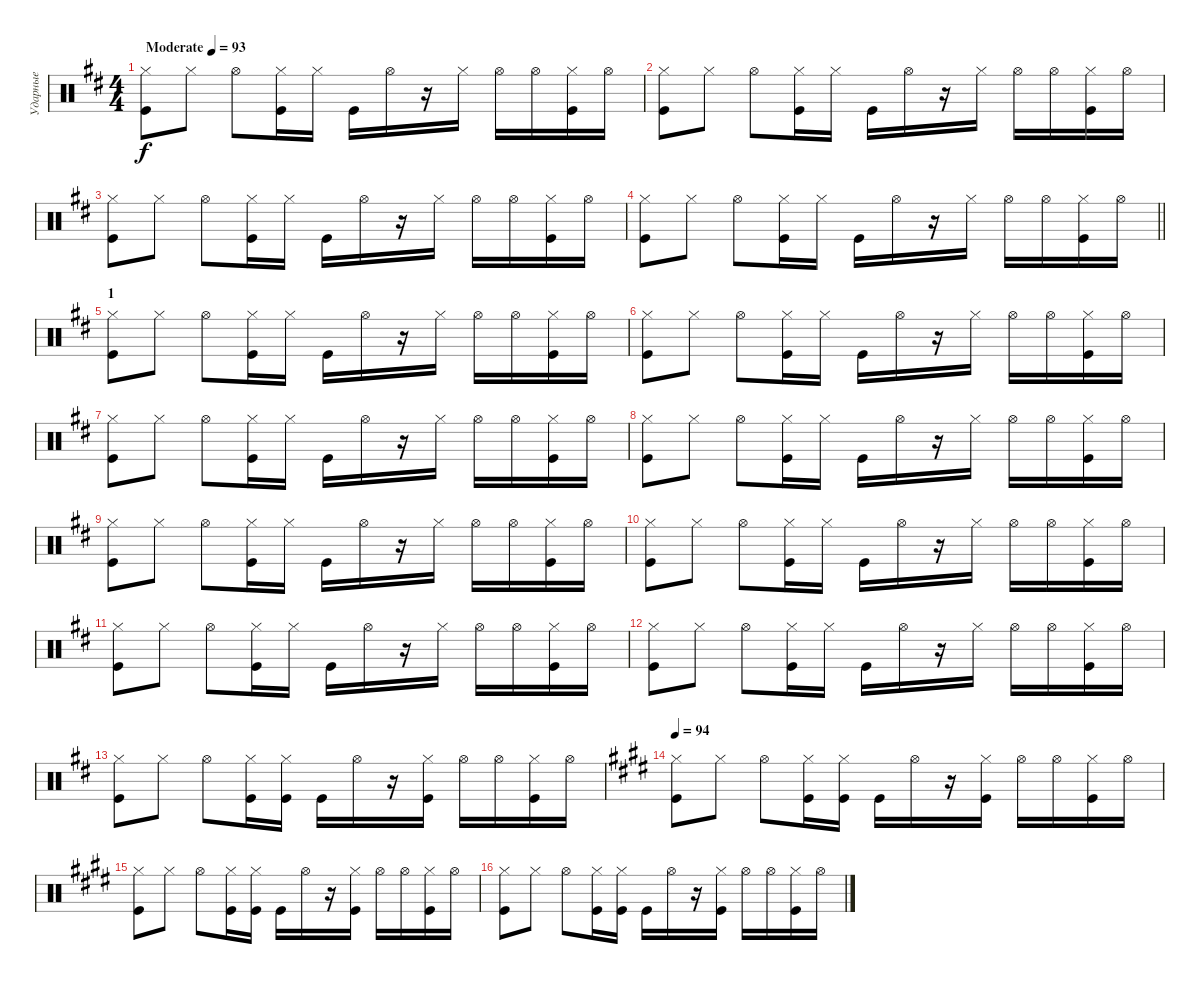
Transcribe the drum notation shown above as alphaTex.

\track ("Ударные" "Ударные") {instrument percussion}
\staff {score}
\articulation defaults
\ts (4 4)
\tempo (93 "Moderate")
\clef neutral
\ks bminor
("Hi-Hat (closed)" "Kick (hit)").8{dy f volume 12} "Hi-Hat (closed)".8 "Hi-Hat (open)".8 ("Hi-Hat (closed)" "Kick (hit)").16 "Hi-Hat (closed)".16 "Kick (hit)".16 "Hi-Hat (open)".16 r.16 "Hi-Hat (closed)".16 "Hi-Hat (open)".16 "Hi-Hat (open)".16 ("Hi-Hat (closed)" "Kick (hit)").16 "Hi-Hat (open)".16 |
("Hi-Hat (closed)" "Kick (hit)").8 "Hi-Hat (closed)".8 "Hi-Hat (open)".8 ("Hi-Hat (closed)" "Kick (hit)").16 "Hi-Hat (closed)".16 "Kick (hit)".16 "Hi-Hat (open)".16 r.16 "Hi-Hat (closed)".16 "Hi-Hat (open)".16 "Hi-Hat (open)".16 ("Hi-Hat (closed)" "Kick (hit)").16 "Hi-Hat (open)".16 |
("Hi-Hat (closed)" "Kick (hit)").8 "Hi-Hat (closed)".8 "Hi-Hat (open)".8 ("Hi-Hat (closed)" "Kick (hit)").16 "Hi-Hat (closed)".16 "Kick (hit)".16 "Hi-Hat (open)".16 r.16 "Hi-Hat (closed)".16 "Hi-Hat (open)".16 "Hi-Hat (open)".16 ("Hi-Hat (closed)" "Kick (hit)").16 "Hi-Hat (open)".16 |
\barLineRight lightlight
("Hi-Hat (closed)" "Kick (hit)").8 "Hi-Hat (closed)".8 "Hi-Hat (open)".8 ("Hi-Hat (closed)" "Kick (hit)").16 "Hi-Hat (closed)".16 "Kick (hit)".16 "Hi-Hat (open)".16 r.16 "Hi-Hat (closed)".16 "Hi-Hat (open)".16 "Hi-Hat (open)".16 ("Hi-Hat (closed)" "Kick (hit)").16 "Hi-Hat (open)".16 |
\section ("" "1")
("Hi-Hat (closed)" "Kick (hit)").8 "Hi-Hat (closed)".8 "Hi-Hat (open)".8 ("Hi-Hat (closed)" "Kick (hit)").16 "Hi-Hat (closed)".16 "Kick (hit)".16 "Hi-Hat (open)".16 r.16 "Hi-Hat (closed)".16 "Hi-Hat (open)".16 "Hi-Hat (open)".16 ("Hi-Hat (closed)" "Kick (hit)").16 "Hi-Hat (open)".16 |
("Hi-Hat (closed)" "Kick (hit)").8 "Hi-Hat (closed)".8 "Hi-Hat (open)".8 ("Hi-Hat (closed)" "Kick (hit)").16 "Hi-Hat (closed)".16 "Kick (hit)".16 "Hi-Hat (open)".16 r.16 "Hi-Hat (closed)".16 "Hi-Hat (open)".16 "Hi-Hat (open)".16 ("Hi-Hat (closed)" "Kick (hit)").16 "Hi-Hat (open)".16 |
("Hi-Hat (closed)" "Kick (hit)").8 "Hi-Hat (closed)".8 "Hi-Hat (open)".8 ("Hi-Hat (closed)" "Kick (hit)").16 "Hi-Hat (closed)".16 "Kick (hit)".16 "Hi-Hat (open)".16 r.16 "Hi-Hat (closed)".16 "Hi-Hat (open)".16 "Hi-Hat (open)".16 ("Hi-Hat (closed)" "Kick (hit)").16 "Hi-Hat (open)".16 |
("Hi-Hat (closed)" "Kick (hit)").8 "Hi-Hat (closed)".8 "Hi-Hat (open)".8 ("Hi-Hat (closed)" "Kick (hit)").16 "Hi-Hat (closed)".16 "Kick (hit)".16 "Hi-Hat (open)".16 r.16 "Hi-Hat (closed)".16 "Hi-Hat (open)".16 "Hi-Hat (open)".16 ("Hi-Hat (closed)" "Kick (hit)").16 "Hi-Hat (open)".16 |
("Hi-Hat (closed)" "Kick (hit)").8 "Hi-Hat (closed)".8 "Hi-Hat (open)".8 ("Hi-Hat (closed)" "Kick (hit)").16 "Hi-Hat (closed)".16 "Kick (hit)".16 "Hi-Hat (open)".16 r.16 "Hi-Hat (closed)".16 "Hi-Hat (open)".16 "Hi-Hat (open)".16 ("Hi-Hat (closed)" "Kick (hit)").16 "Hi-Hat (open)".16 |
("Hi-Hat (closed)" "Kick (hit)").8 "Hi-Hat (closed)".8 "Hi-Hat (open)".8 ("Hi-Hat (closed)" "Kick (hit)").16 "Hi-Hat (closed)".16 "Kick (hit)".16 "Hi-Hat (open)".16 r.16 "Hi-Hat (closed)".16 "Hi-Hat (open)".16 "Hi-Hat (open)".16 ("Hi-Hat (closed)" "Kick (hit)").16 "Hi-Hat (open)".16 |
("Hi-Hat (closed)" "Kick (hit)").8 "Hi-Hat (closed)".8 "Hi-Hat (open)".8 ("Hi-Hat (closed)" "Kick (hit)").16 "Hi-Hat (closed)".16 "Kick (hit)".16 "Hi-Hat (open)".16 r.16 "Hi-Hat (closed)".16 "Hi-Hat (open)".16 "Hi-Hat (open)".16 ("Hi-Hat (closed)" "Kick (hit)").16 "Hi-Hat (open)".16 |
("Hi-Hat (closed)" "Kick (hit)").8 "Hi-Hat (closed)".8 "Hi-Hat (open)".8 ("Hi-Hat (closed)" "Kick (hit)").16 "Hi-Hat (closed)".16 "Kick (hit)".16 "Hi-Hat (open)".16 r.16 "Hi-Hat (closed)".16 "Hi-Hat (open)".16 "Hi-Hat (open)".16 ("Hi-Hat (closed)" "Kick (hit)").16 "Hi-Hat (open)".16 |
("Hi-Hat (closed)" "Kick (hit)").8 "Hi-Hat (closed)".8 "Hi-Hat (open)".8 ("Hi-Hat (closed)" "Kick (hit)").16 ("Hi-Hat (closed)" "Kick (hit)").16 "Kick (hit)".16 "Hi-Hat (open)".16 r.16 ("Hi-Hat (closed)" "Kick (hit)").16 "Hi-Hat (open)".16 "Hi-Hat (open)".16 ("Hi-Hat (closed)" "Kick (hit)").16 "Hi-Hat (open)".16 |
\tempo 94
\ks c#minor
("Hi-Hat (closed)" "Kick (hit)").8 "Hi-Hat (closed)".8 "Hi-Hat (open)".8 ("Hi-Hat (closed)" "Kick (hit)").16 ("Hi-Hat (closed)" "Kick (hit)").16 "Kick (hit)".16 "Hi-Hat (open)".16 r.16 ("Hi-Hat (closed)" "Kick (hit)").16 "Hi-Hat (open)".16 "Hi-Hat (open)".16 ("Hi-Hat (closed)" "Kick (hit)").16 "Hi-Hat (open)".16 |
("Hi-Hat (closed)" "Kick (hit)").8 "Hi-Hat (closed)".8 "Hi-Hat (open)".8 ("Hi-Hat (closed)" "Kick (hit)").16 ("Hi-Hat (closed)" "Kick (hit)").16 "Kick (hit)".16 "Hi-Hat (open)".16 r.16 ("Hi-Hat (closed)" "Kick (hit)").16 "Hi-Hat (open)".16 "Hi-Hat (open)".16 ("Hi-Hat (closed)" "Kick (hit)").16 "Hi-Hat (open)".16 |
("Hi-Hat (closed)" "Kick (hit)").8 "Hi-Hat (closed)".8 "Hi-Hat (open)".8 ("Hi-Hat (closed)" "Kick (hit)").16 ("Hi-Hat (closed)" "Kick (hit)").16 "Kick (hit)".16 "Hi-Hat (open)".16 r.16 ("Hi-Hat (closed)" "Kick (hit)").16 "Hi-Hat (open)".16 "Hi-Hat (open)".16 ("Hi-Hat (closed)" "Kick (hit)").16 "Hi-Hat (open)".16
